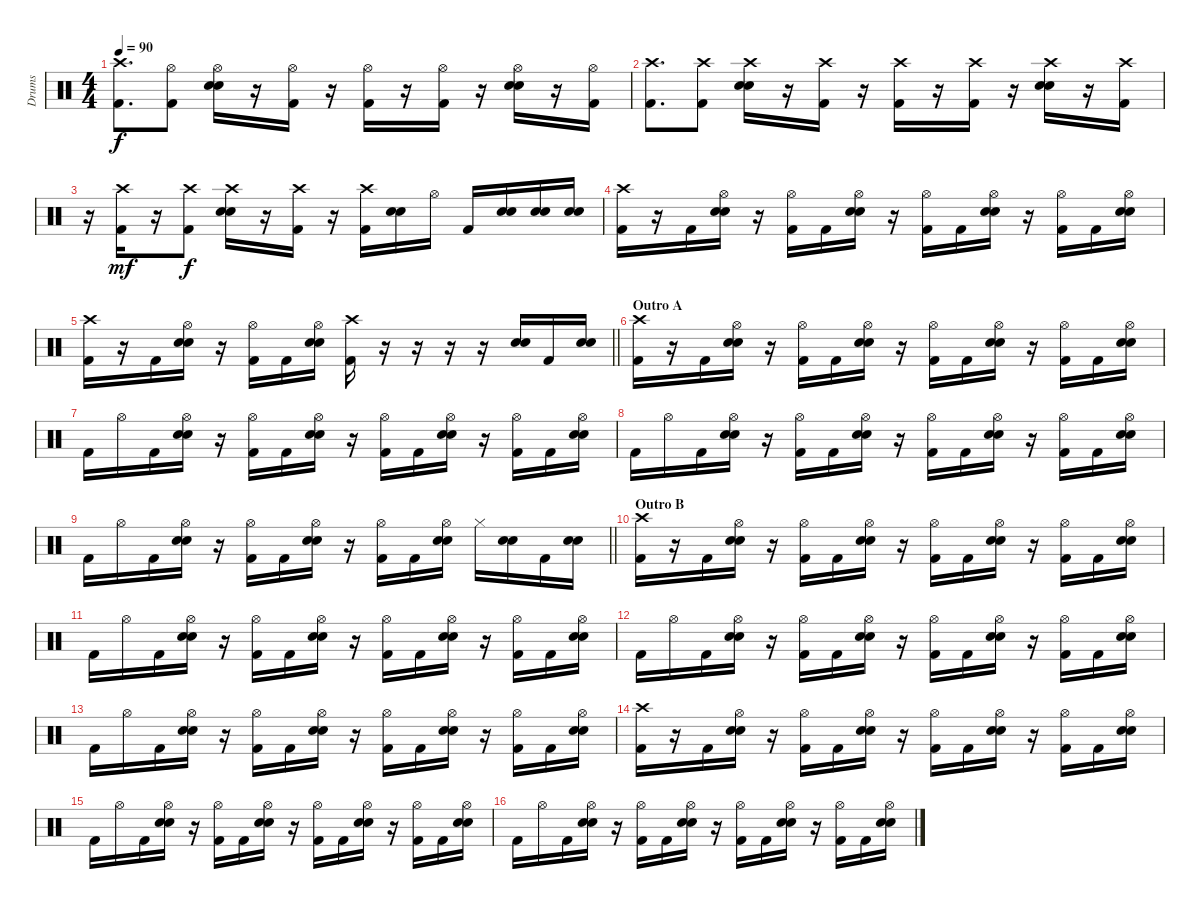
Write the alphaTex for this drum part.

\track ("Drums" "Drums") {instrument percussion}
\staff {score}
\articulation defaults
\ts (4 4)
\tempo 90
\clef neutral
\ks c
("Crash high (hit)" "Kick (hit) 2").8{d dy f} ("Hi-Hat (open)" "Kick (hit) 2").8 ("Hi-Hat (open)" "Snare (hit) 2" "Snare (hit) 2").16 r.16 ("Hi-Hat (open)" "Kick (hit) 2").16 r.16 ("Hi-Hat (open)" "Kick (hit) 2").16 r.16 ("Hi-Hat (open)" "Kick (hit) 2").16 r.16 ("Hi-Hat (open)" "Snare (hit) 2" "Snare (hit) 2").16 r.16 ("Hi-Hat (open)" "Kick (hit) 2").16 |
("Crash high (hit)" "Kick (hit) 2").8{d} ("Crash high (hit)" "Kick (hit) 2").8 ("Crash high (hit)" "Snare (hit) 2" "Snare (hit) 2").16 r.16 ("Crash high (hit)" "Kick (hit) 2").16 r.16 ("Crash high (hit)" "Kick (hit) 2").16 r.16 ("Crash high (hit)" "Kick (hit) 2").16 r.16 ("Crash high (hit)" "Snare (hit) 2" "Snare (hit) 2").16 r.16 ("Crash high (hit)" "Kick (hit) 2").16 |
r.16 ("Crash high (hit)" "Kick (hit) 2").16{dy mf} r.16 ("Crash high (hit)" "Kick (hit) 2").8{dy f} ("Crash high (hit)" "Snare (hit) 2" "Snare (hit) 2").16 r.16 ("Crash high (hit)" "Kick (hit) 2").16 r.16 ("Crash high (hit)" "Kick (hit) 2").16 ("Snare (hit) 2" "Snare (hit) 2").16 "Hi-Hat (open)".16 "Kick (hit) 2".16 ("Snare (hit) 2" "Snare (hit) 2").16 ("Snare (hit) 2" "Snare (hit) 2").16 ("Snare (hit) 2" "Snare (hit) 2").16 |
("Crash high (hit)" "Kick (hit) 2").16 r.16 "Kick (hit) 2".16 ("Hi-Hat (open)" "Snare (hit) 2" "Snare (hit) 2").16 r.16 ("Hi-Hat (open)" "Kick (hit) 2").16 "Kick (hit) 2".16 ("Hi-Hat (open)" "Snare (hit) 2" "Snare (hit) 2").16 r.16 ("Hi-Hat (open)" "Kick (hit) 2").16 "Kick (hit) 2".16 ("Hi-Hat (open)" "Snare (hit) 2" "Snare (hit) 2").16 r.16 ("Hi-Hat (open)" "Kick (hit) 2").16 "Kick (hit) 2".16 ("Hi-Hat (open)" "Snare (hit) 2" "Snare (hit) 2").16 |
\barLineRight lightlight
("Crash high (hit)" "Kick (hit) 2").16 r.16 "Kick (hit) 2".16 ("Hi-Hat (open)" "Snare (hit) 2" "Snare (hit) 2").16 r.16 ("Hi-Hat (open)" "Kick (hit) 2").16 "Kick (hit) 2".16 ("Hi-Hat (open)" "Snare (hit) 2" "Snare (hit) 2").16 ("Crash high (hit)" "Kick (hit) 2").16 r.16 r.16 r.16 r.16 ("Snare (hit) 2" "Snare (hit) 2").16 "Kick (hit) 2".16 ("Snare (hit) 2" "Snare (hit) 2").16 |
\section ("" "Outro A")
("Crash high (hit)" "Kick (hit) 2").16 r.16 "Kick (hit) 2".16 ("Hi-Hat (open)" "Snare (hit) 2" "Snare (hit) 2").16 r.16 ("Hi-Hat (open)" "Kick (hit) 2").16 "Kick (hit) 2".16 ("Hi-Hat (open)" "Snare (hit) 2" "Snare (hit) 2").16 r.16 ("Hi-Hat (open)" "Kick (hit) 2").16 "Kick (hit) 2".16 ("Hi-Hat (open)" "Snare (hit) 2" "Snare (hit) 2").16 r.16 ("Hi-Hat (open)" "Kick (hit) 2").16 "Kick (hit) 2".16 ("Hi-Hat (open)" "Snare (hit) 2" "Snare (hit) 2").16 |
"Kick (hit) 2".16 "Hi-Hat (open)".16 "Kick (hit) 2".16 ("Hi-Hat (open)" "Snare (hit) 2" "Snare (hit) 2").16 r.16 ("Hi-Hat (open)" "Kick (hit) 2").16 "Kick (hit) 2".16 ("Hi-Hat (open)" "Snare (hit) 2" "Snare (hit) 2").16 r.16 ("Hi-Hat (open)" "Kick (hit) 2").16 "Kick (hit) 2".16 ("Hi-Hat (open)" "Snare (hit) 2" "Snare (hit) 2").16 r.16 ("Hi-Hat (open)" "Kick (hit) 2").16 "Kick (hit) 2".16 ("Hi-Hat (open)" "Snare (hit) 2" "Snare (hit) 2").16 |
"Kick (hit) 2".16 "Hi-Hat (open)".16 "Kick (hit) 2".16 ("Hi-Hat (open)" "Snare (hit) 2" "Snare (hit) 2").16 r.16 ("Hi-Hat (open)" "Kick (hit) 2").16 "Kick (hit) 2".16 ("Hi-Hat (open)" "Snare (hit) 2" "Snare (hit) 2").16 r.16 ("Hi-Hat (open)" "Kick (hit) 2").16 "Kick (hit) 2".16 ("Hi-Hat (open)" "Snare (hit) 2" "Snare (hit) 2").16 r.16 ("Hi-Hat (open)" "Kick (hit) 2").16 "Kick (hit) 2".16 ("Hi-Hat (open)" "Snare (hit) 2" "Snare (hit) 2").16 |
\barLineRight lightlight "Kick (hit) 2".16 "Hi-Hat (open)".16 "Kick (hit) 2".16
("Hi-Hat (open)" "Snare (hit) 2" "Snare (hit) 2").16 r.16 ("Hi-Hat (open)" "Kick (hit) 2").16 "Kick (hit) 2".16 ("Hi-Hat (open)" "Snare (hit) 2" "Snare (hit) 2").16 r.16 ("Hi-Hat (open)" "Kick (hit) 2").16 "Kick (hit) 2".16 ("Hi-Hat (open)" "Snare (hit) 2" "Snare (hit) 2").16 "Hi-Hat (closed)".16 ("Snare (hit) 2" "Snare (hit) 2").16 "Kick (hit) 2".16 ("Snare (hit) 2" "Snare (hit) 2").16 |
\section ("" "Outro B")
("Crash high (hit)" "Kick (hit) 2").16 r.16 "Kick (hit) 2".16 ("Hi-Hat (open)" "Snare (hit) 2" "Snare (hit) 2").16 r.16 ("Hi-Hat (open)" "Kick (hit) 2").16 "Kick (hit) 2".16 ("Hi-Hat (open)" "Snare (hit) 2" "Snare (hit) 2").16 r.16 ("Hi-Hat (open)" "Kick (hit) 2").16 "Kick (hit) 2".16 ("Hi-Hat (open)" "Snare (hit) 2" "Snare (hit) 2").16 r.16 ("Hi-Hat (open)" "Kick (hit) 2").16 "Kick (hit) 2".16 ("Hi-Hat (open)" "Snare (hit) 2" "Snare (hit) 2").16 |
"Kick (hit) 2".16 "Hi-Hat (open)".16 "Kick (hit) 2".16 ("Hi-Hat (open)" "Snare (hit) 2" "Snare (hit) 2").16 r.16 ("Hi-Hat (open)" "Kick (hit) 2").16 "Kick (hit) 2".16 ("Hi-Hat (open)" "Snare (hit) 2" "Snare (hit) 2").16 r.16 ("Hi-Hat (open)" "Kick (hit) 2").16 "Kick (hit) 2".16 ("Hi-Hat (open)" "Snare (hit) 2" "Snare (hit) 2").16 r.16 ("Hi-Hat (open)" "Kick (hit) 2").16 "Kick (hit) 2".16 ("Hi-Hat (open)" "Snare (hit) 2" "Snare (hit) 2").16 |
"Kick (hit) 2".16 "Hi-Hat (open)".16 "Kick (hit) 2".16 ("Hi-Hat (open)" "Snare (hit) 2" "Snare (hit) 2").16 r.16 ("Hi-Hat (open)" "Kick (hit) 2").16 "Kick (hit) 2".16 ("Hi-Hat (open)" "Snare (hit) 2" "Snare (hit) 2").16 r.16 ("Hi-Hat (open)" "Kick (hit) 2").16 "Kick (hit) 2".16 ("Hi-Hat (open)" "Snare (hit) 2" "Snare (hit) 2").16 r.16 ("Hi-Hat (open)" "Kick (hit) 2").16 "Kick (hit) 2".16 ("Hi-Hat (open)" "Snare (hit) 2" "Snare (hit) 2").16 |
"Kick (hit) 2".16 "Hi-Hat (open)".16 "Kick (hit) 2".16 ("Hi-Hat (open)" "Snare (hit) 2" "Snare (hit) 2").16 r.16 ("Hi-Hat (open)" "Kick (hit) 2").16 "Kick (hit) 2".16 ("Hi-Hat (open)" "Snare (hit) 2" "Snare (hit) 2").16 r.16 ("Hi-Hat (open)" "Kick (hit) 2").16 "Kick (hit) 2".16 ("Hi-Hat (open)" "Snare (hit) 2" "Snare (hit) 2").16 r.16 ("Hi-Hat (open)" "Kick (hit) 2").16 "Kick (hit) 2".16 ("Hi-Hat (open)" "Snare (hit) 2" "Snare (hit) 2").16 |
("Crash high (hit)" "Kick (hit) 2").16 r.16 "Kick (hit) 2".16 ("Hi-Hat (open)" "Snare (hit) 2" "Snare (hit) 2").16 r.16 ("Hi-Hat (open)" "Kick (hit) 2").16 "Kick (hit) 2".16 ("Hi-Hat (open)" "Snare (hit) 2" "Snare (hit) 2").16 r.16 ("Hi-Hat (open)" "Kick (hit) 2").16 "Kick (hit) 2".16 ("Hi-Hat (open)" "Snare (hit) 2" "Snare (hit) 2").16 r.16 ("Hi-Hat (open)" "Kick (hit) 2").16 "Kick (hit) 2".16 ("Hi-Hat (open)" "Snare (hit) 2" "Snare (hit) 2").16 |
"Kick (hit) 2".16 "Hi-Hat (open)".16 "Kick (hit) 2".16 ("Hi-Hat (open)" "Snare (hit) 2" "Snare (hit) 2").16 r.16 ("Hi-Hat (open)" "Kick (hit) 2").16 "Kick (hit) 2".16 ("Hi-Hat (open)" "Snare (hit) 2" "Snare (hit) 2").16 r.16 ("Hi-Hat (open)" "Kick (hit) 2").16 "Kick (hit) 2".16 ("Hi-Hat (open)" "Snare (hit) 2" "Snare (hit) 2").16 r.16 ("Hi-Hat (open)" "Kick (hit) 2").16 "Kick (hit) 2".16 ("Hi-Hat (open)" "Snare (hit) 2" "Snare (hit) 2").16 |
"Kick (hit) 2".16 "Hi-Hat (open)".16 "Kick (hit) 2".16 ("Hi-Hat (open)" "Snare (hit) 2" "Snare (hit) 2").16 r.16 ("Hi-Hat (open)" "Kick (hit) 2").16 "Kick (hit) 2".16 ("Hi-Hat (open)" "Snare (hit) 2" "Snare (hit) 2").16 r.16 ("Hi-Hat (open)" "Kick (hit) 2").16 "Kick (hit) 2".16 ("Hi-Hat (open)" "Snare (hit) 2" "Snare (hit) 2").16 r.16 ("Hi-Hat (open)" "Kick (hit) 2").16 "Kick (hit) 2".16 ("Hi-Hat (open)" "Snare (hit) 2" "Snare (hit) 2").16
